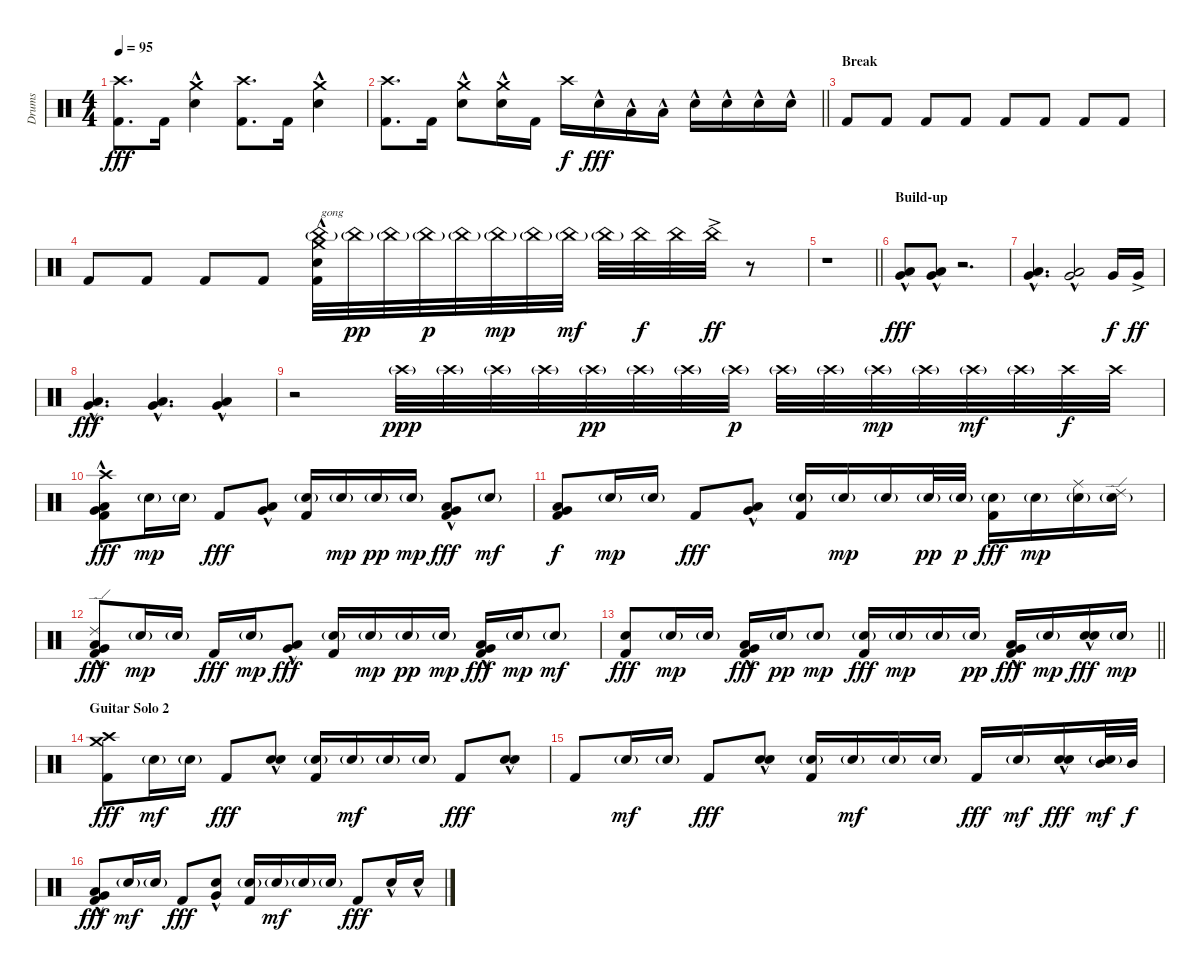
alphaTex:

\track ("Drums" "Drums") {instrument percussion}
\staff {score}
\articulation defaults
\ts (4 4)
\tempo 95
\clef neutral
\ks c
("Crash high (hit)" "Kick (hit) 2").8{d dy fff} "Kick (hit) 2".16 ("Crash medium (hit)" "Electric Snare (hit)"{hac}).4 ("Crash high (hit)" "Kick (hit) 2").8{d} "Kick (hit) 2".16 ("Crash medium (hit)" "Electric Snare (hit)"{hac}).4 |
\barLineRight lightlight
("Crash high (hit)" "Kick (hit) 2").8{d} "Kick (hit) 2".16 ("Crash medium (hit)" "Electric Snare (hit)"{hac}).8 ("Crash medium (hit)" "Electric Snare (hit)"{hac}).16 "Kick (hit) 2".16 "Crash high (hit)".16{dy f} "Electric Snare (hit)"{hac}.16{dy fff} "Low Tom (hit)"{hac}.16 "Low Tom (hit)"{hac}.16 "Electric Snare (hit)"{hac}.16 "Electric Snare (hit)"{hac}.16 "Electric Snare (hit)"{hac}.16 "Electric Snare (hit)"{hac}.16 |
\section ("" "Break")
"Kick (hit) 2".8 "Kick (hit) 2".8 "Kick (hit) 2".8 "Kick (hit) 2".8 "Kick (hit) 2".8 "Kick (hit) 2".8 "Kick (hit) 2".8 "Kick (hit) 2".8 |
"Kick (hit) 2".8 "Kick (hit) 2".8 "Kick (hit) 2".8 "Kick (hit) 2".8 ("Crash medium (hit)" "China (hit)"{g} "Electric Snare (hit)"{hac} "Kick (hit) 2").32{txt "gong"} "China (hit)"{g}.32{dy pp} "China (hit)"{g}.32 "China (hit)"{g}.32{dy p} "China (hit)"{g}.32 "China (hit)"{g}.32{dy mp} "China (hit)"{g}.32 "China (hit)"{g}.32{dy mf} "China (hit)"{g}.32 "China (hit)".32{dy f} "China (hit)".32 "China (hit)"{ac}.32{dy ff} r.8 |
\barLineRight lightlight
r.1 |
\section ("" "Build-up")
("Very Low Tom (hit)"{hac} "Low Floor Tom (hit)"{hac}).8{dy fff volume 12} ("Very Low Tom (hit)"{hac} "Low Floor Tom (hit)"{hac}).8 r.2{d} |
("Very Low Tom (hit)"{hac} "Low Floor Tom (hit)"{hac}).4{d} ("Very Low Tom (hit)"{hac} "Low Floor Tom (hit)"{hac}).2 "Very Low Tom (hit)".16{dy f} "Very Low Tom (hit)"{ac}.16{dy ff} |
("Very Low Tom (hit)"{hac} "Low Floor Tom (hit)"{hac}).4{d dy fff} ("Very Low Tom (hit)"{hac} "Low Floor Tom (hit)"{hac}).4{d} ("Very Low Tom (hit)"{hac} "Low Floor Tom (hit)"{hac}).4 |
r.2 "Crash high (hit)"{g}.32{dy ppp volume 10} "Crash high (hit)"{g}.32 "Crash high (hit)"{g}.32 "Crash high (hit)"{g}.32 "Crash high (hit)"{g}.32{dy pp} "Crash high (hit)"{g}.32 "Crash high (hit)"{g}.32 "Crash high (hit)"{g}.32{dy p} "Crash high (hit)"{g}.32 "Crash high (hit)"{g}.32 "Crash high (hit)"{g}.32{dy mp} "Crash high (hit)"{g}.32 "Crash high (hit)"{g}.32{dy mf} "Crash high (hit)"{g}.32 "Crash high (hit)".32{dy f} "Crash high (hit)".32 |
("Crash high (hit)" "Very Low Tom (hit)"{hac} "Low Floor Tom (hit)"{hac} "Kick (hit) 2").8{dy fff} "Snare (hit) 2"{g}.16{dy mp} "Snare (hit) 2"{g}.16 "Kick (hit) 2".8{dy fff} ("Very Low Tom (hit)"{hac} "Low Floor Tom (hit)"{hac}).8 ("Snare (hit) 2"{g} "Kick (hit) 2").16 "Snare (hit) 2"{g}.16{dy mp} "Snare (hit) 2"{g}.16{dy pp} "Snare (hit) 2"{g}.16{dy mp} ("Very Low Tom (hit)"{hac} "Low Floor Tom (hit)"{hac} "Kick (hit) 2").8{dy fff} "Snare (hit) 2"{g}.8{dy mf} |
("Very Low Tom (hit)" "Low Floor Tom (hit)" "Kick (hit) 2").8{dy f} "Snare (hit) 2"{g}.16{dy mp} "Snare (hit) 2"{g}.16 "Kick (hit) 2".8{dy fff} ("Very Low Tom (hit)"{hac} "Low Floor Tom (hit)"{hac}).8 ("Snare (hit) 2"{g} "Kick (hit) 2").16 "Snare (hit) 2"{g}.16{dy mp} "Snare (hit) 2"{g}.16 "Snare (hit) 2"{g}.32{dy pp} "Snare (hit) 2"{g}.32{dy p} ("Snare (hit) 2"{g} "Kick (hit) 2").16{dy fff} "Snare (hit) 2"{g}.16{dy mp} ("Ride (middle)" "Snare (hit) 2"{g}).16 ("Ride (edge) 2" "Snare (hit) 2"{g}).16 |
("Ride (edge) 2" "Very Low Tom (hit)"{hac} "Low Floor Tom (hit)"{hac} "Kick (hit) 2").8{dy fff} "Snare (hit) 2"{g}.16{dy mp} "Snare (hit) 2"{g}.16 "Kick (hit) 2".16{dy fff} "Snare (hit) 2"{g}.16{dy mp} ("Very Low Tom (hit)"{hac} "Low Floor Tom (hit)"{hac}).8{dy fff} ("Snare (hit) 2"{g} "Kick (hit) 2").16 "Snare (hit) 2"{g}.16{dy mp} "Snare (hit) 2"{g}.16{dy pp} "Snare (hit) 2"{g}.16{dy mp} ("Very Low Tom (hit)"{hac} "Low Floor Tom (hit)"{hac} "Kick (hit) 2").16{dy fff} "Snare (hit) 2"{g}.16{dy mp} "Snare (hit) 2"{g}.8{dy mf} |
\barLineRight lightlight
("Snare (hit) 2" "Kick (hit) 2").8{dy fff} "Snare (hit) 2"{g}.16{dy mp} "Snare (hit) 2"{g}.16 ("Low Tom (hit)"{hac} "Very Low Tom (hit)"{hac} "Kick (hit) 2").16{dy fff} "Snare (hit) 2"{g}.16{dy pp} "Snare (hit) 2"{g}.8{dy mp} ("Snare (hit) 2"{g} "Kick (hit) 2").16{dy fff} "Snare (hit) 2"{g}.16{dy mp} "Snare (hit) 2"{g}.16 "Snare (hit) 2"{g}.16{dy pp} ("Low Tom (hit)"{hac} "Very Low Tom (hit)"{hac} "Kick (hit) 2").16{dy fff} "Snare (hit) 2"{g}.16{dy mp} ("Electric Snare (hit)"{hac} "Electric Snare (hit)"{hac}).16{bd 120 dy fff} "Snare (hit) 2"{g}.16{dy mp} |
\section ("" "Guitar Solo 2")
("Crash medium (hit)" "Crash high (hit)" "Kick (hit) 2").8{dy fff} "Snare (hit) 2"{g}.16{dy mf} "Snare (hit) 2"{g}.16 "Kick (hit) 2".8{dy fff} ("Electric Snare (hit)"{hac} "Electric Snare (hit)"{hac}).8{bd 120} ("Snare (hit) 2"{g} "Kick (hit) 2").16 "Snare (hit) 2"{g}.16{dy mf} "Snare (hit) 2"{g}.16 "Snare (hit) 2"{g}.16 "Kick (hit) 2".8{dy fff} ("Electric Snare (hit)"{hac} "Electric Snare (hit)"{hac}).8{bd 120} |
"Kick (hit) 2".8 "Snare (hit) 2"{g}.16{dy mf} "Snare (hit) 2"{g}.16 "Kick (hit) 2".8{dy fff} ("Electric Snare (hit)"{hac} "Electric Snare (hit)"{hac}).8 ("Snare (hit) 2"{g} "Kick (hit) 2").16 "Snare (hit) 2"{g}.16{dy mf} "Snare (hit) 2"{g}.16 "Snare (hit) 2"{g}.16 "Kick (hit) 2".16{dy fff} "Snare (hit) 2"{g}.16{dy mf} ("Electric Snare (hit)"{hac} "Electric Snare (hit)"{hac}).16{dy fff} ("Mid Tom (hit)" "Snare (hit) 2"{g}).32{dy mf} "Mid Tom (hit)".32{dy f} |
("Low Tom (hit)"{hac} "Very Low Tom (hit)"{hac} "Kick (hit) 2").8{dy fff} "Snare (hit) 2"{g}.16{dy mf} "Snare (hit) 2"{g}.16 "Kick (hit) 2".8{dy fff} ("Electric Snare (hit)"{hac} "Very Low Tom (hit)"{hac}).8 ("Snare (hit) 2"{g} "Kick (hit) 2").16 "Snare (hit) 2"{g}.16{dy mf} "Snare (hit) 2"{g}.16 "Snare (hit) 2"{g}.16 "Kick (hit) 2".8{dy fff} "Electric Snare (hit)"{hac}.16 "Electric Snare (hit)"{hac}.16
